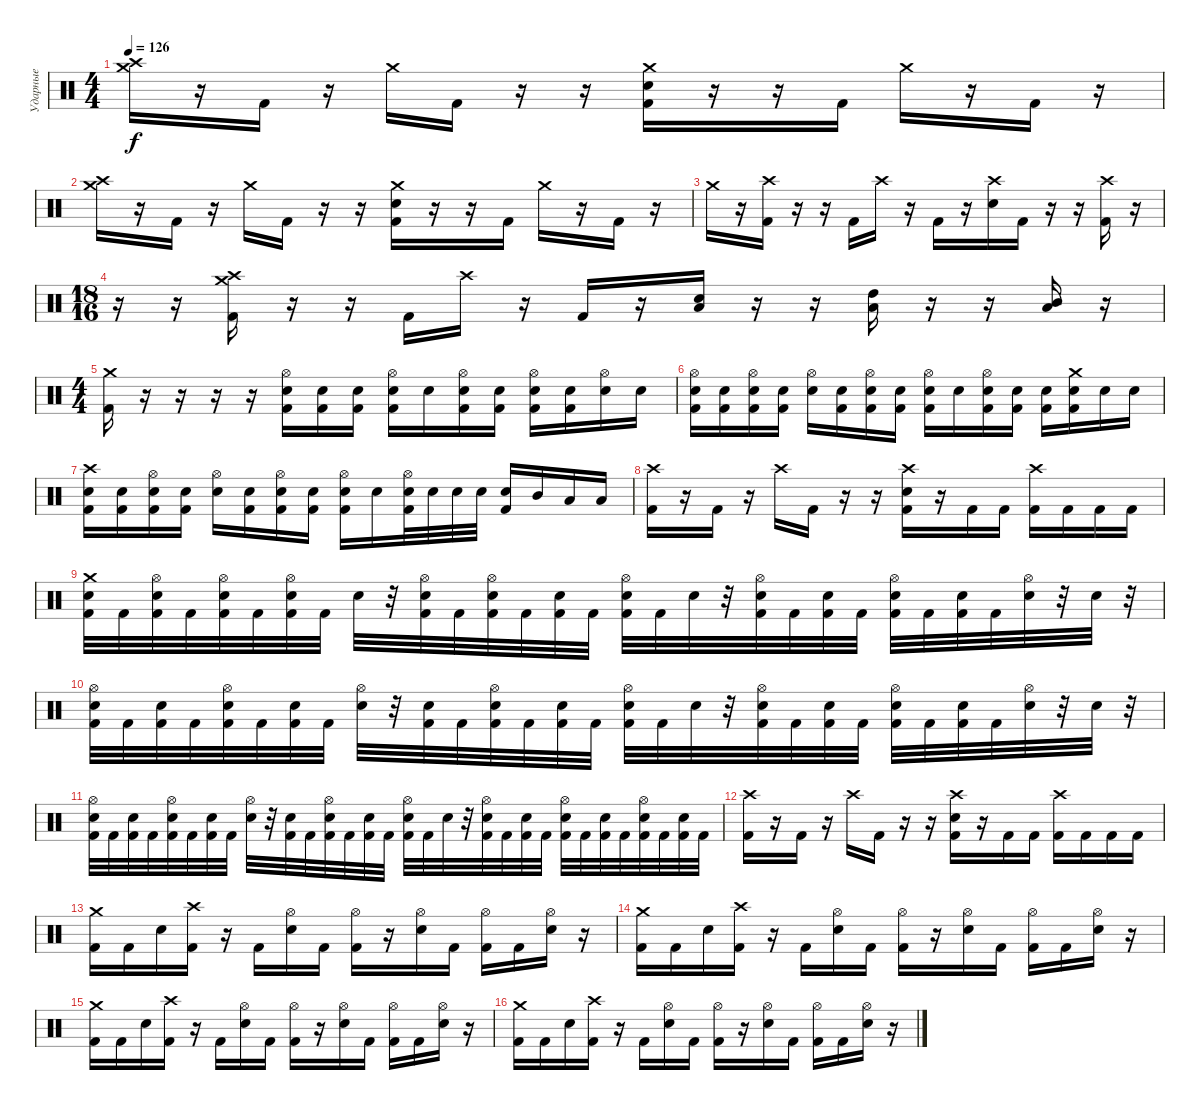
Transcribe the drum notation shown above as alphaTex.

\track ("Ударные" "Ударные") {instrument percussion}
\staff {score}
\articulation defaults
\ts (4 4)
\tempo 126
\clef neutral
\ks c
("Crash medium (hit)" "Crash high (hit)").16{dy f} r.16 "Kick (hit) 2".16 r.16 "Crash medium (hit)".16 "Kick (hit) 2".16 r.16 r.16 ("Crash medium (hit)" "Electric Snare (hit)" "Kick (hit) 2").16 r.16 r.16 "Kick (hit) 2".16 "Crash medium (hit)".16 r.16 "Kick (hit) 2".16 r.16 |
("Crash medium (hit)" "Crash high (hit)").16 r.16 "Kick (hit) 2".16 r.16 "Crash medium (hit)".16 "Kick (hit) 2".16 r.16 r.16 ("Crash medium (hit)" "Electric Snare (hit)" "Kick (hit) 2").16 r.16 r.16 "Kick (hit) 2".16 "Crash medium (hit)".16 r.16 "Kick (hit) 2".16 r.16 |
"Crash medium (hit)".16 r.16 ("Crash high (hit)" "Kick (hit) 2").16 r.16 r.16 "Kick (hit) 2".16 "Crash high (hit)".16 r.16 "Kick (hit) 2".16 r.16 ("Crash high (hit)" "Electric Snare (hit)").16 "Kick (hit) 2".16 r.16 r.16 ("Crash high (hit)" "Kick (hit) 2").16 r.16 |
\ts (18 16)
r.16 r.16 ("Crash high (hit)" "Crash medium (hit)" "Kick (hit) 2").16 r.16 r.16 "Kick (hit) 2".16 "Crash high (hit)".16 r.16 "Kick (hit) 2".16 r.16 ("Low Tom (hit)" "Electric Snare (hit)").16 r.16 r.16 ("High Tom (hit)" "Low Tom (hit)").16 r.16 r.16 ("Mid Tom (hit)" "Low Tom (hit)").16 r.16 |
\ts (4 4)
("Crash medium (hit)" "Kick (hit) 2").16 r.16 r.16 r.16 r.16 ("Hi-Hat (open)" "Electric Snare (hit)" "Kick (hit) 2").16 ("Electric Snare (hit)" "Kick (hit) 2").16 ("Electric Snare (hit)" "Kick (hit) 2").16 ("Hi-Hat (open)" "Electric Snare (hit)" "Kick (hit) 2").16 "Electric Snare (hit)".16 ("Hi-Hat (open)" "Electric Snare (hit)" "Kick (hit) 2").16 ("Electric Snare (hit)" "Kick (hit) 2").16 ("Hi-Hat (open)" "Electric Snare (hit)" "Kick (hit) 2").16 ("Electric Snare (hit)" "Kick (hit) 2").16 ("Hi-Hat (open)" "Electric Snare (hit)").16 "Electric Snare (hit)".16 |
("Hi-Hat (open)" "Electric Snare (hit)" "Kick (hit) 2").16 ("Electric Snare (hit)" "Kick (hit) 2").16 ("Hi-Hat (open)" "Electric Snare (hit)" "Kick (hit) 2").16 ("Electric Snare (hit)" "Kick (hit) 2").16 ("Hi-Hat (open)" "Electric Snare (hit)").16 ("Electric Snare (hit)" "Kick (hit) 2").16 ("Hi-Hat (open)" "Electric Snare (hit)" "Kick (hit) 2").16 ("Electric Snare (hit)" "Kick (hit) 2").16 ("Hi-Hat (open)" "Electric Snare (hit)" "Kick (hit) 2").16 "Electric Snare (hit)".16 ("Hi-Hat (open)" "Electric Snare (hit)" "Kick (hit) 2").16 ("Electric Snare (hit)" "Kick (hit) 2").16 ("Electric Snare (hit)" "Kick (hit) 2").16 ("Crash medium (hit)" "Electric Snare (hit)" "Kick (hit) 2").16 "Electric Snare (hit)".16 "Electric Snare (hit)".16 |
("Crash high (hit)" "Electric Snare (hit)" "Kick (hit) 2").16 ("Electric Snare (hit)" "Kick (hit) 2").16 ("Hi-Hat (open)" "Electric Snare (hit)" "Kick (hit) 2").16 ("Electric Snare (hit)" "Kick (hit) 2").16 ("Hi-Hat (open)" "Electric Snare (hit)").16 ("Electric Snare (hit)" "Kick (hit) 2").16 ("Hi-Hat (open)" "Electric Snare (hit)" "Kick (hit) 2").16 ("Electric Snare (hit)" "Kick (hit) 2").16 ("Hi-Hat (open)" "Electric Snare (hit)" "Kick (hit) 2").16 "Electric Snare (hit)".16 ("Hi-Hat (open)" "Electric Snare (hit)" "Kick (hit) 2").32 "Electric Snare (hit)".32 "Electric Snare (hit)".32 "Electric Snare (hit)".32 ("Electric Snare (hit)" "Kick (hit) 2").16 "Mid Tom (hit)".16 "Low Tom (hit)".16 "Low Tom (hit)".16 |
("Crash high (hit)" "Kick (hit) 2").16 r.16 "Kick (hit) 2".16 r.16 "Crash high (hit)".16 "Kick (hit) 2".16 r.16 r.16 ("Crash high (hit)" "Electric Snare (hit)" "Kick (hit) 2").16 r.16 "Kick (hit) 2".16 "Kick (hit) 2".16 ("Crash high (hit)" "Kick (hit) 2").16 "Kick (hit) 2".16 "Kick (hit) 2".16 "Kick (hit) 2".16 |
("Crash medium (hit)" "Electric Snare (hit)" "Kick (hit) 2").32 "Kick (hit) 2".32 ("Hi-Hat (open)" "Electric Snare (hit)" "Kick (hit) 2").32 "Kick (hit) 2".32 ("Hi-Hat (open)" "Electric Snare (hit)" "Kick (hit) 2").32 "Kick (hit) 2".32 ("Hi-Hat (open)" "Electric Snare (hit)" "Kick (hit) 2").32 "Kick (hit) 2".32 "Electric Snare (hit)".32 r.32 ("Hi-Hat (open)" "Electric Snare (hit)" "Kick (hit) 2").32 "Kick (hit) 2".32 ("Hi-Hat (open)" "Electric Snare (hit)" "Kick (hit) 2").32 "Kick (hit) 2".32 ("Electric Snare (hit)" "Kick (hit) 2").32 "Kick (hit) 2".32 ("Hi-Hat (open)" "Electric Snare (hit)" "Kick (hit) 2").32 "Kick (hit) 2".32 "Electric Snare (hit)".32 r.32 ("Hi-Hat (open)" "Electric Snare (hit)" "Kick (hit) 2").32 "Kick (hit) 2".32 ("Electric Snare (hit)" "Kick (hit) 2").32 "Kick (hit) 2".32 ("Hi-Hat (open)" "Electric Snare (hit)" "Kick (hit) 2").32 "Kick (hit) 2".32 ("Electric Snare (hit)" "Kick (hit) 2").32 "Kick (hit) 2".32 ("Hi-Hat (open)" "Electric Snare (hit)").32 r.32 "Electric Snare (hit)".32 r.32 |
("Hi-Hat (open)" "Electric Snare (hit)" "Kick (hit) 2").32 "Kick (hit) 2".32 ("Electric Snare (hit)" "Kick (hit) 2").32 "Kick (hit) 2".32 ("Hi-Hat (open)" "Electric Snare (hit)" "Kick (hit) 2").32 "Kick (hit) 2".32 ("Electric Snare (hit)" "Kick (hit) 2").32 "Kick (hit) 2".32 ("Hi-Hat (open)" "Electric Snare (hit)").32 r.32 ("Electric Snare (hit)" "Kick (hit) 2").32 "Kick (hit) 2".32 ("Hi-Hat (open)" "Electric Snare (hit)" "Kick (hit) 2").32 "Kick (hit) 2".32 ("Electric Snare (hit)" "Kick (hit) 2").32 "Kick (hit) 2".32 ("Hi-Hat (open)" "Electric Snare (hit)" "Kick (hit) 2").32 "Kick (hit) 2".32 "Electric Snare (hit)".32 r.32 ("Hi-Hat (open)" "Electric Snare (hit)" "Kick (hit) 2").32 "Kick (hit) 2".32 ("Electric Snare (hit)" "Kick (hit) 2").32 "Kick (hit) 2".32 ("Hi-Hat (open)" "Electric Snare (hit)" "Kick (hit) 2").32 "Kick (hit) 2".32 ("Electric Snare (hit)" "Kick (hit) 2").32 "Kick (hit) 2".32 ("Hi-Hat (open)" "Electric Snare (hit)").32 r.32 "Electric Snare (hit)".32 r.32 |
("Hi-Hat (open)" "Electric Snare (hit)" "Kick (hit) 2").32 "Kick (hit) 2".32 ("Electric Snare (hit)" "Kick (hit) 2").32 "Kick (hit) 2".32 ("Hi-Hat (open)" "Electric Snare (hit)" "Kick (hit) 2").32 "Kick (hit) 2".32 ("Electric Snare (hit)" "Kick (hit) 2").32 "Kick (hit) 2".32 ("Hi-Hat (open)" "Electric Snare (hit)").32 r.32 ("Electric Snare (hit)" "Kick (hit) 2").32 "Kick (hit) 2".32 ("Hi-Hat (open)" "Electric Snare (hit)" "Kick (hit) 2").32 "Kick (hit) 2".32 ("Electric Snare (hit)" "Kick (hit) 2").32 "Kick (hit) 2".32 ("Hi-Hat (open)" "Electric Snare (hit)" "Kick (hit) 2").32 "Kick (hit) 2".32 "Electric Snare (hit)".32 r.32 ("Hi-Hat (open)" "Electric Snare (hit)" "Kick (hit) 2").32 "Kick (hit) 2".32 ("Electric Snare (hit)" "Kick (hit) 2").32 "Kick (hit) 2".32 ("Hi-Hat (open)" "Electric Snare (hit)" "Kick (hit) 2").32 "Kick (hit) 2".32 ("Electric Snare (hit)" "Kick (hit) 2").32 "Kick (hit) 2".32 ("Hi-Hat (open)" "Electric Snare (hit)" "Kick (hit) 2").32 "Kick (hit) 2".32 ("Electric Snare (hit)" "Kick (hit) 2").32 "Kick (hit) 2".32 |
("Crash high (hit)" "Kick (hit) 2").16 r.16 "Kick (hit) 2".16 r.16 "Crash high (hit)".16 "Kick (hit) 2".16 r.16 r.16 ("Crash high (hit)" "Electric Snare (hit)" "Kick (hit) 2").16 r.16 "Kick (hit) 2".16 "Kick (hit) 2".16 ("Crash high (hit)" "Kick (hit) 2").16 "Kick (hit) 2".16 "Kick (hit) 2".16 "Kick (hit) 2".16 |
("Crash medium (hit)" "Kick (hit) 2").16 "Kick (hit) 2".16 "Electric Snare (hit)".16 ("Crash high (hit)" "Kick (hit) 2").16 r.16 "Kick (hit) 2".16 ("Hi-Hat (open)" "Electric Snare (hit)").16 "Kick (hit) 2".16 ("Hi-Hat (open)" "Kick (hit) 2").16 r.16 ("Hi-Hat (open)" "Electric Snare (hit)").16 "Kick (hit) 2".16 ("Hi-Hat (open)" "Kick (hit) 2").16 "Kick (hit) 2".16 ("Hi-Hat (open)" "Electric Snare (hit)").16 r.16 |
("Crash medium (hit)" "Kick (hit) 2").16 "Kick (hit) 2".16 "Electric Snare (hit)".16 ("Crash high (hit)" "Kick (hit) 2").16 r.16 "Kick (hit) 2".16 ("Hi-Hat (open)" "Electric Snare (hit)").16 "Kick (hit) 2".16 ("Hi-Hat (open)" "Kick (hit) 2").16 r.16 ("Hi-Hat (open)" "Electric Snare (hit)").16 "Kick (hit) 2".16 ("Hi-Hat (open)" "Kick (hit) 2").16 "Kick (hit) 2".16 ("Hi-Hat (open)" "Electric Snare (hit)").16 r.16 |
("Crash medium (hit)" "Kick (hit) 2").16 "Kick (hit) 2".16 "Electric Snare (hit)".16 ("Crash high (hit)" "Kick (hit) 2").16 r.16 "Kick (hit) 2".16 ("Hi-Hat (open)" "Electric Snare (hit)").16 "Kick (hit) 2".16 ("Hi-Hat (open)" "Kick (hit) 2").16 r.16 ("Hi-Hat (open)" "Electric Snare (hit)").16 "Kick (hit) 2".16 ("Hi-Hat (open)" "Kick (hit) 2").16 "Kick (hit) 2".16 ("Hi-Hat (open)" "Electric Snare (hit)").16 r.16 |
("Crash medium (hit)" "Kick (hit) 2").16 "Kick (hit) 2".16 "Electric Snare (hit)".16 ("Crash high (hit)" "Kick (hit) 2").16 r.16 "Kick (hit) 2".16 ("Hi-Hat (open)" "Electric Snare (hit)").16 "Kick (hit) 2".16 ("Hi-Hat (open)" "Kick (hit) 2").16 r.16 ("Hi-Hat (open)" "Electric Snare (hit)").16 "Kick (hit) 2".16 ("Hi-Hat (open)" "Kick (hit) 2").16 "Kick (hit) 2".16 ("Hi-Hat (open)" "Electric Snare (hit)").16 r.16
